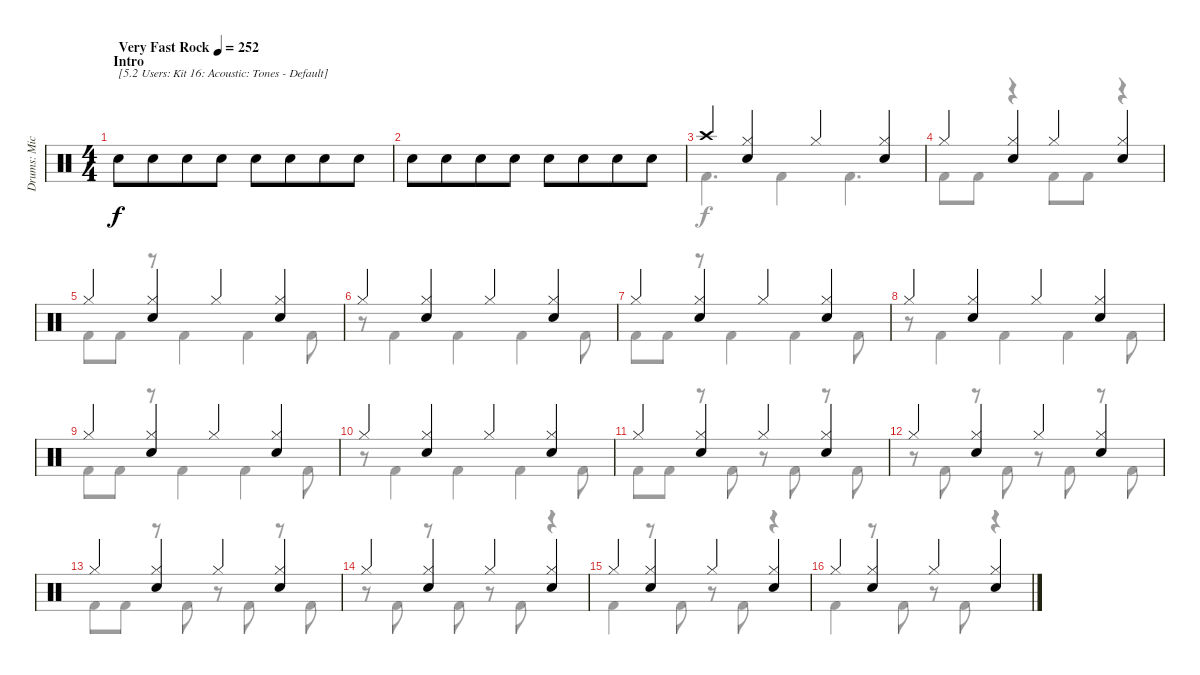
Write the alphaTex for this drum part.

\track ("Drums: Mick" "Drums: Mic") {instrument percussion}
\staff {score}
\articulation defaults
\voice
\ts (4 4)
\section ("" "Intro")
\tempo (252 "Very Fast Rock")
\clef neutral
\ks c "Snare (hit) 2".8{txt "[5.2 Users: Kit 16: Acoustic: Tones - Default]" dy f} "Snare (hit) 2".8{beam merge} "Snare (hit) 2".8 "Snare (hit) 2".8 "Snare (hit) 2".8 "Snare (hit) 2".8{beam merge} "Snare (hit) 2".8 "Snare (hit) 2".8
|
"Snare (hit) 2".8 "Snare (hit) 2".8{beam merge} "Snare (hit) 2".8 "Snare (hit) 2".8 "Snare (hit) 2".8 "Snare (hit) 2".8{beam merge} "Snare (hit) 2".8 "Snare (hit) 2".8 |
"Crash high (hit)".4 ("Hi-Hat (closed)" "Snare (hit) 2").4 "Hi-Hat (closed)".4 ("Hi-Hat (closed)" "Snare (hit) 2").4 |
"Hi-Hat (closed)".4 ("Hi-Hat (closed)" "Snare (hit) 2").4 "Hi-Hat (closed)".4 ("Hi-Hat (closed)" "Snare (hit) 2").4 |
"Hi-Hat (closed)".4 ("Hi-Hat (closed)" "Snare (hit) 2").4 "Hi-Hat (closed)".4 ("Hi-Hat (closed)" "Snare (hit) 2").4 |
"Hi-Hat (closed)".4 ("Hi-Hat (closed)" "Snare (hit) 2").4 "Hi-Hat (closed)".4 ("Hi-Hat (closed)" "Snare (hit) 2").4 |
"Hi-Hat (closed)".4 ("Hi-Hat (closed)" "Snare (hit) 2").4 "Hi-Hat (closed)".4 ("Hi-Hat (closed)" "Snare (hit) 2").4 |
"Hi-Hat (closed)".4 ("Hi-Hat (closed)" "Snare (hit) 2").4 "Hi-Hat (closed)".4 ("Hi-Hat (closed)" "Snare (hit) 2").4 |
"Hi-Hat (closed)".4 ("Hi-Hat (closed)" "Snare (hit) 2").4 "Hi-Hat (closed)".4 ("Hi-Hat (closed)" "Snare (hit) 2").4 |
"Hi-Hat (closed)".4 ("Hi-Hat (closed)" "Snare (hit) 2").4 "Hi-Hat (closed)".4 ("Hi-Hat (closed)" "Snare (hit) 2").4 |
"Hi-Hat (closed)".4 ("Hi-Hat (closed)" "Snare (hit) 2").4 "Hi-Hat (closed)".4 ("Hi-Hat (closed)" "Snare (hit) 2").4 |
"Hi-Hat (closed)".4 ("Hi-Hat (closed)" "Snare (hit) 2").4 "Hi-Hat (closed)".4 ("Hi-Hat (closed)" "Snare (hit) 2").4 |
"Hi-Hat (closed)".4 ("Hi-Hat (closed)" "Snare (hit) 2").4 "Hi-Hat (closed)".4 ("Hi-Hat (closed)" "Snare (hit) 2").4 |
"Hi-Hat (closed)".4 ("Hi-Hat (closed)" "Snare (hit) 2").4 "Hi-Hat (closed)".4 ("Hi-Hat (closed)" "Snare (hit) 2").4 |
"Hi-Hat (closed)".4 ("Hi-Hat (closed)" "Snare (hit) 2").4 "Hi-Hat (closed)".4 ("Hi-Hat (closed)" "Snare (hit) 2").4 |
"Hi-Hat (closed)".4 ("Hi-Hat (closed)" "Snare (hit) 2").4 "Hi-Hat (closed)".4 ("Hi-Hat (closed)" "Snare (hit) 2").4
\voice
\clef neutral
\ottava regular
\simile none
\ks c
|
|
"Kick (hit) 2".4{d} "Kick (hit) 2".4 "Kick (hit) 2".4{d} |
"Kick (hit) 2".8 "Kick (hit) 2".8 r.4 "Kick (hit) 2".8 "Kick (hit) 2".8 r.4 |
"Kick (hit) 2".8 "Kick (hit) 2".8 r.8 "Kick (hit) 2".4 "Kick (hit) 2".4 "Kick (hit) 2".8 |
r.8 "Kick (hit) 2".4 "Kick (hit) 2".4 "Kick (hit) 2".4 "Kick (hit) 2".8 |
"Kick (hit) 2".8 "Kick (hit) 2".8 r.8 "Kick (hit) 2".4 "Kick (hit) 2".4 "Kick (hit) 2".8 |
r.8 "Kick (hit) 2".4 "Kick (hit) 2".4 "Kick (hit) 2".4 "Kick (hit) 2".8 |
"Kick (hit) 2".8 "Kick (hit) 2".8 r.8 "Kick (hit) 2".4 "Kick (hit) 2".4 "Kick (hit) 2".8 |
r.8 "Kick (hit) 2".4 "Kick (hit) 2".4 "Kick (hit) 2".4 "Kick (hit) 2".8 |
"Kick (hit) 2".8 "Kick (hit) 2".8 r.8 "Kick (hit) 2".8 r.8 "Kick (hit) 2".8 r.8 "Kick (hit) 2".8 |
r.8 "Kick (hit) 2".8 r.8 "Kick (hit) 2".8 r.8 "Kick (hit) 2".8 r.8 "Kick (hit) 2".8 |
"Kick (hit) 2".8 "Kick (hit) 2".8 r.8 "Kick (hit) 2".8 r.8 "Kick (hit) 2".8 r.8 "Kick (hit) 2".8 |
r.8 "Kick (hit) 2".8 r.8 "Kick (hit) 2".8 r.8 "Kick (hit) 2".8 r.4 |
"Kick (hit) 2".4 r.8 "Kick (hit) 2".8 r.8 "Kick (hit) 2".8 r.4 |
"Kick (hit) 2".4 r.8 "Kick (hit) 2".8 r.8 "Kick (hit) 2".8 r.4
